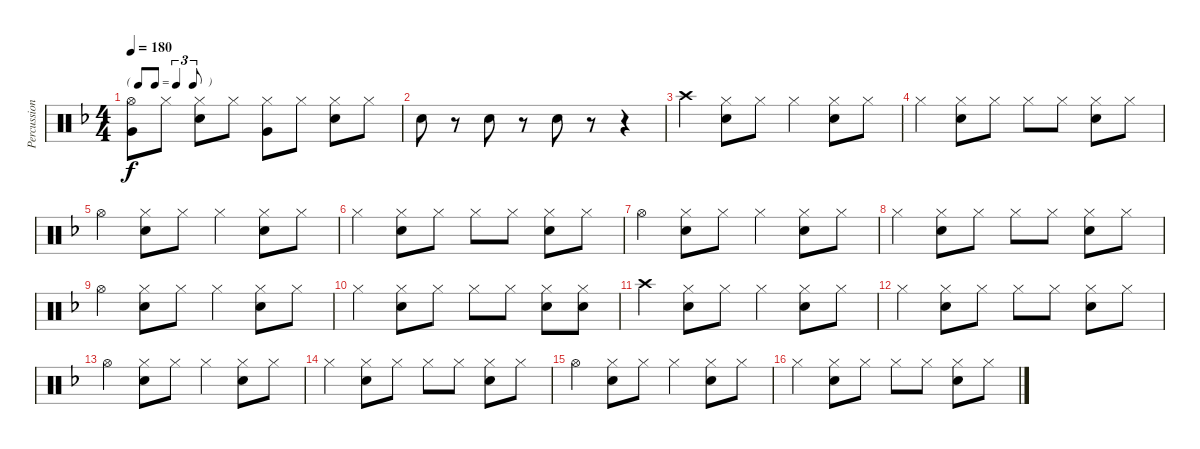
\track ("Percussion" "Percussion") {instrument percussion}
\staff {score}
\articulation defaults
\ts (4 4)
\tf triplet8th
\tempo 180
\clef neutral
\ks f
("Hi-Hat (open)" "Very Low Tom (hit)").8{dy f} "Hi-Hat (closed)".8 ("Hi-Hat (closed)" "Snare (hit) 2").8 "Hi-Hat (closed)".8 ("Hi-Hat (closed)" "Very Low Tom (hit)").8 "Hi-Hat (closed)".8 ("Hi-Hat (closed)" "Snare (hit) 2").8 "Hi-Hat (closed)".8 |
"Snare (hit) 2".8 r.8 "Snare (hit) 2".8 r.8 "Snare (hit) 2".8 r.8 r.4 |
"Crash high (hit)".4 ("Hi-Hat (closed)" "Snare (hit) 2").8 "Hi-Hat (closed)".8 "Hi-Hat (closed)".4 ("Hi-Hat (closed)" "Snare (hit) 2").8 "Hi-Hat (closed)".8 |
"Hi-Hat (closed)".4 ("Hi-Hat (closed)" "Snare (hit) 2").8 "Hi-Hat (closed)".8 "Hi-Hat (closed)".8 "Hi-Hat (closed)".8 ("Hi-Hat (closed)" "Snare (hit) 2").8 "Hi-Hat (closed)".8 |
"Hi-Hat (open)".4 ("Hi-Hat (closed)" "Snare (hit) 2").8 "Hi-Hat (closed)".8 "Hi-Hat (closed)".4 ("Hi-Hat (closed)" "Snare (hit) 2").8 "Hi-Hat (closed)".8 |
"Hi-Hat (closed)".4 ("Hi-Hat (closed)" "Snare (hit) 2").8 "Hi-Hat (closed)".8 "Hi-Hat (closed)".8 "Hi-Hat (closed)".8 ("Hi-Hat (closed)" "Snare (hit) 2").8 "Hi-Hat (closed)".8 |
"Hi-Hat (open)".4 ("Hi-Hat (closed)" "Snare (hit) 2").8 "Hi-Hat (closed)".8 "Hi-Hat (closed)".4 ("Hi-Hat (closed)" "Snare (hit) 2").8 "Hi-Hat (closed)".8 |
"Hi-Hat (closed)".4 ("Hi-Hat (closed)" "Snare (hit) 2").8 "Hi-Hat (closed)".8 "Hi-Hat (closed)".8 "Hi-Hat (closed)".8 ("Hi-Hat (closed)" "Snare (hit) 2").8 "Hi-Hat (closed)".8 |
"Hi-Hat (open)".4 ("Hi-Hat (closed)" "Snare (hit) 2").8 "Hi-Hat (closed)".8 "Hi-Hat (closed)".4 ("Hi-Hat (closed)" "Snare (hit) 2").8 "Hi-Hat (closed)".8 |
"Hi-Hat (closed)".4 ("Hi-Hat (closed)" "Snare (hit) 2").8 "Hi-Hat (closed)".8 "Hi-Hat (closed)".8 "Hi-Hat (closed)".8 ("Hi-Hat (closed)" "Snare (hit) 2").8 ("Hi-Hat (closed)" "Snare (hit) 2").8 |
"Crash high (hit)".4 ("Hi-Hat (closed)" "Snare (hit) 2").8 "Hi-Hat (closed)".8 "Hi-Hat (closed)".4 ("Hi-Hat (closed)" "Snare (hit) 2").8 "Hi-Hat (closed)".8 |
"Hi-Hat (closed)".4 ("Hi-Hat (closed)" "Snare (hit) 2").8 "Hi-Hat (closed)".8 "Hi-Hat (closed)".8 "Hi-Hat (closed)".8 ("Hi-Hat (closed)" "Snare (hit) 2").8 "Hi-Hat (closed)".8 |
"Hi-Hat (open)".4 ("Hi-Hat (closed)" "Snare (hit) 2").8 "Hi-Hat (closed)".8 "Hi-Hat (closed)".4 ("Hi-Hat (closed)" "Snare (hit) 2").8 "Hi-Hat (closed)".8 |
"Hi-Hat (closed)".4 ("Hi-Hat (closed)" "Snare (hit) 2").8 "Hi-Hat (closed)".8 "Hi-Hat (closed)".8 "Hi-Hat (closed)".8 ("Hi-Hat (closed)" "Snare (hit) 2").8 "Hi-Hat (closed)".8 |
"Hi-Hat (open)".4 ("Hi-Hat (closed)" "Snare (hit) 2").8 "Hi-Hat (closed)".8 "Hi-Hat (closed)".4 ("Hi-Hat (closed)" "Snare (hit) 2").8 "Hi-Hat (closed)".8 |
"Hi-Hat (closed)".4 ("Hi-Hat (closed)" "Snare (hit) 2").8 "Hi-Hat (closed)".8 "Hi-Hat (closed)".8 "Hi-Hat (closed)".8 ("Hi-Hat (closed)" "Snare (hit) 2").8 "Hi-Hat (closed)".8
